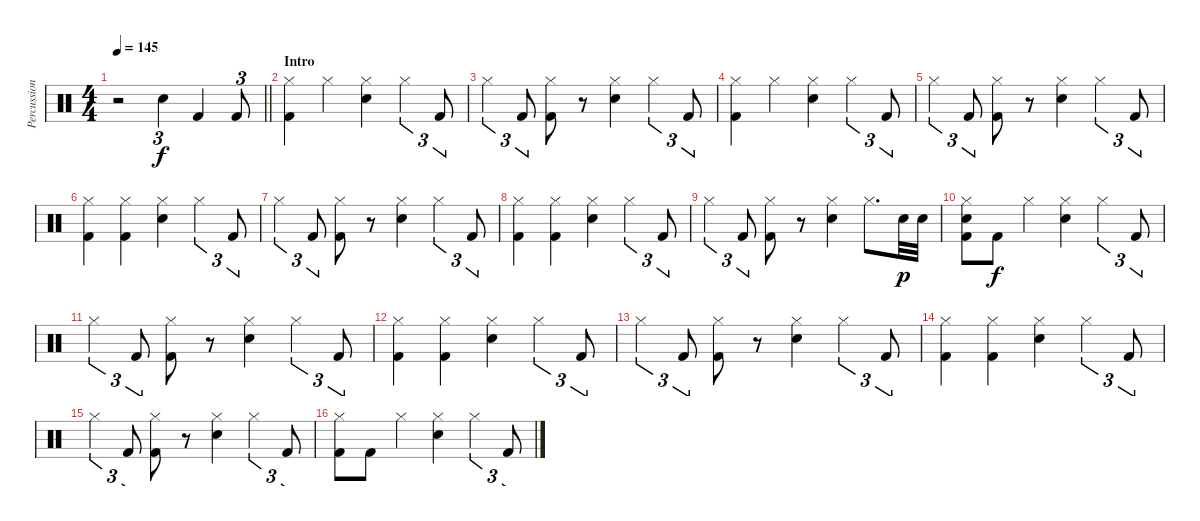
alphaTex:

\track ("Percussion" "Percussion") {instrument percussion}
\staff {score}
\articulation defaults
\ts (4 4)
\tempo 145
\clef neutral
\barLineRight lightlight
\ks c
r.2{dy f} "Electric Snare (hit)".4{tu (3 2)} "Kick (hit) 2".4 "Kick (hit) 2".8{tu (3 2)} |
\section ("" "Intro")
("Hi-Hat (closed)" "Kick (hit) 2").4 "Hi-Hat (closed)".4 ("Hi-Hat (closed)" "Electric Snare (hit)").4 "Hi-Hat (closed)".4{tu (3 2)} "Kick (hit) 2".8{tu (3 2)} |
"Hi-Hat (closed)".4{tu (3 2)} "Kick (hit) 2".8{tu (3 2)} ("Hi-Hat (closed)" "Kick (hit) 2").8 r.8 ("Hi-Hat (closed)" "Electric Snare (hit)").4 "Hi-Hat (closed)".4{tu (3 2)} "Kick (hit) 2".8{tu (3 2)} |
("Hi-Hat (closed)" "Kick (hit) 2").4 "Hi-Hat (closed)".4 ("Hi-Hat (closed)" "Electric Snare (hit)").4 "Hi-Hat (closed)".4{tu (3 2)} "Kick (hit) 2".8{tu (3 2)} |
"Hi-Hat (closed)".4{tu (3 2)} "Kick (hit) 2".8{tu (3 2)} ("Hi-Hat (closed)" "Kick (hit) 2").8 r.8 ("Hi-Hat (closed)" "Electric Snare (hit)").4 "Hi-Hat (closed)".4{tu (3 2)} "Kick (hit) 2".8{tu (3 2)} |
("Hi-Hat (closed)" "Kick (hit) 2").4 ("Hi-Hat (closed)" "Kick (hit) 2").4 ("Hi-Hat (closed)" "Electric Snare (hit)").4 "Hi-Hat (closed)".4{tu (3 2)} "Kick (hit) 2".8{tu (3 2)} |
"Hi-Hat (closed)".4{tu (3 2)} "Kick (hit) 2".8{tu (3 2)} ("Hi-Hat (closed)" "Kick (hit) 2").8 r.8 ("Hi-Hat (closed)" "Electric Snare (hit)").4 "Hi-Hat (closed)".4{tu (3 2)} "Kick (hit) 2".8{tu (3 2)} |
("Hi-Hat (closed)" "Kick (hit) 2").4 ("Hi-Hat (closed)" "Kick (hit) 2").4 ("Hi-Hat (closed)" "Electric Snare (hit)").4 "Hi-Hat (closed)".4{tu (3 2)} "Kick (hit) 2".8{tu (3 2)} |
"Hi-Hat (closed)".4{tu (3 2)} "Kick (hit) 2".8{tu (3 2)} ("Hi-Hat (closed)" "Kick (hit) 2").8 r.8 ("Hi-Hat (closed)" "Electric Snare (hit)").4 "Hi-Hat (closed)".8{d} "Electric Snare (hit)".32{dy p} "Electric Snare (hit)".32 |
("Hi-Hat (closed)" "Electric Snare (hit)" "Kick (hit) 2").8 "Kick (hit) 2".8{dy f} "Hi-Hat (closed)".4 ("Hi-Hat (closed)" "Electric Snare (hit)").4 "Hi-Hat (closed)".4{tu (3 2)} "Kick (hit) 2".8{tu (3 2)} |
"Hi-Hat (closed)".4{tu (3 2)} "Kick (hit) 2".8{tu (3 2)} ("Hi-Hat (closed)" "Kick (hit) 2").8 r.8 ("Hi-Hat (closed)" "Electric Snare (hit)").4 "Hi-Hat (closed)".4{tu (3 2)} "Kick (hit) 2".8{tu (3 2)} |
("Hi-Hat (closed)" "Kick (hit) 2").4 ("Hi-Hat (closed)" "Kick (hit) 2").4 ("Hi-Hat (closed)" "Electric Snare (hit)").4 "Hi-Hat (closed)".4{tu (3 2)} "Kick (hit) 2".8{tu (3 2)} |
"Hi-Hat (closed)".4{tu (3 2)} "Kick (hit) 2".8{tu (3 2)} ("Hi-Hat (closed)" "Kick (hit) 2").8 r.8 ("Hi-Hat (closed)" "Electric Snare (hit)").4 "Hi-Hat (closed)".4{tu (3 2)} "Kick (hit) 2".8{tu (3 2)} |
("Hi-Hat (closed)" "Kick (hit) 2").4 ("Hi-Hat (closed)" "Kick (hit) 2").4 ("Hi-Hat (closed)" "Electric Snare (hit)").4 "Hi-Hat (closed)".4{tu (3 2)} "Kick (hit) 2".8{tu (3 2)} |
"Hi-Hat (closed)".4{tu (3 2)} "Kick (hit) 2".8{tu (3 2)} ("Hi-Hat (closed)" "Kick (hit) 2").8 r.8 ("Hi-Hat (closed)" "Electric Snare (hit)").4 "Hi-Hat (closed)".4{tu (3 2)} "Kick (hit) 2".8{tu (3 2)} |
("Hi-Hat (closed)" "Kick (hit) 2").8 "Kick (hit) 2".8 "Hi-Hat (closed)".4 ("Hi-Hat (closed)" "Electric Snare (hit)").4 "Hi-Hat (closed)".4{tu (3 2)} "Kick (hit) 2".8{tu (3 2)}
